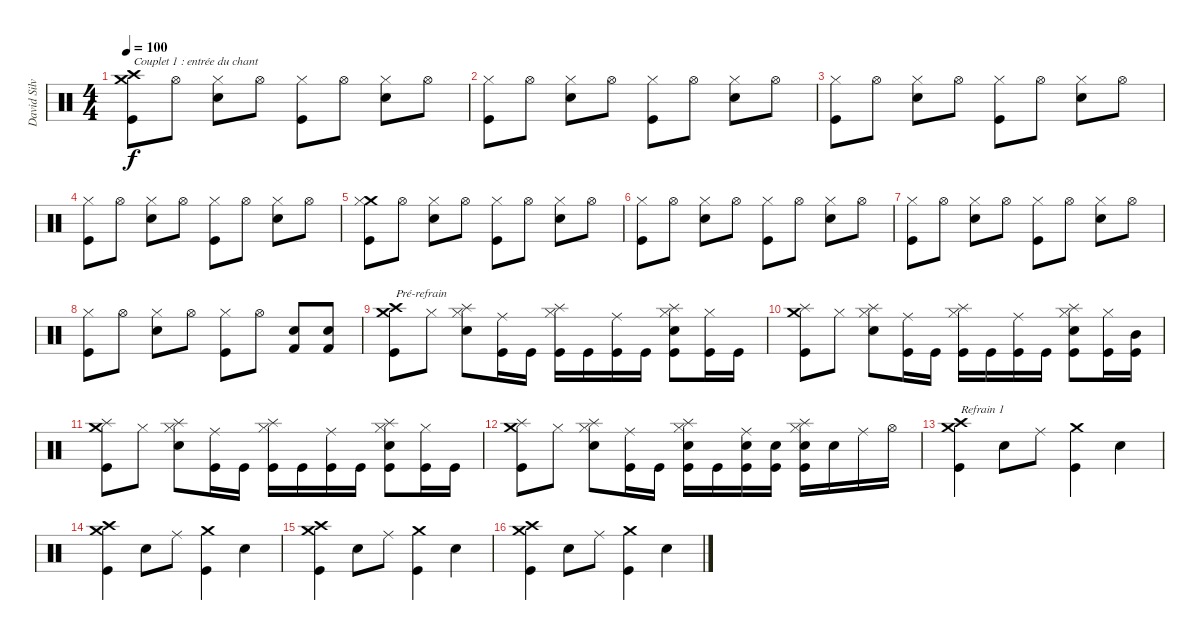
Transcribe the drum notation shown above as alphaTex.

\track ("David Silviera" "David Silv") {instrument percussion}
\staff {score}
\articulation defaults
\ts (4 4)
\tempo 100
\clef neutral
\ks c
("Crash medium (hit)" "Crash high (hit)" "Kick (hit)").8{txt "Couplet 1 : entrée du chant" dy f} "Hi-Hat (open)".8 ("Snare (hit) 2" "Hi-Hat (closed)").8 "Hi-Hat (open)".8 ("Hi-Hat (closed)" "Kick (hit)").8 "Hi-Hat (open)".8 ("Snare (hit) 2" "Hi-Hat (closed)").8 "Hi-Hat (open)".8 |
("Hi-Hat (closed)" "Kick (hit)").8 "Hi-Hat (open)".8 ("Snare (hit) 2" "Hi-Hat (closed)").8 "Hi-Hat (open)".8 ("Hi-Hat (closed)" "Kick (hit)").8 "Hi-Hat (open)".8 ("Snare (hit) 2" "Hi-Hat (closed)").8 "Hi-Hat (open)".8 |
("Hi-Hat (closed)" "Kick (hit)").8 "Hi-Hat (open)".8 ("Snare (hit) 2" "Hi-Hat (closed)").8 "Hi-Hat (open)".8 ("Hi-Hat (closed)" "Kick (hit)").8 "Hi-Hat (open)".8 ("Snare (hit) 2" "Hi-Hat (closed)").8 "Hi-Hat (open)".8 |
("Hi-Hat (closed)" "Kick (hit)").8 "Hi-Hat (open)".8 ("Snare (hit) 2" "Hi-Hat (closed)").8 "Hi-Hat (open)".8 ("Hi-Hat (closed)" "Kick (hit)").8 "Hi-Hat (open)".8 ("Snare (hit) 2" "Hi-Hat (closed)").8 "Hi-Hat (open)".8 |
("Crash medium (hit)" "Hi-Hat (closed)" "Kick (hit)").8 "Hi-Hat (open)".8 ("Snare (hit) 2" "Hi-Hat (closed)").8 "Hi-Hat (open)".8 ("Hi-Hat (closed)" "Kick (hit)").8 "Hi-Hat (open)".8 ("Snare (hit) 2" "Hi-Hat (closed)").8 "Hi-Hat (open)".8 |
("Hi-Hat (closed)" "Kick (hit)").8 "Hi-Hat (open)".8 ("Snare (hit) 2" "Hi-Hat (closed)").8 "Hi-Hat (open)".8 ("Hi-Hat (closed)" "Kick (hit)").8 "Hi-Hat (open)".8 ("Snare (hit) 2" "Hi-Hat (closed)").8 "Hi-Hat (open)".8 |
("Hi-Hat (closed)" "Kick (hit)").8 "Hi-Hat (open)".8 ("Snare (hit) 2" "Hi-Hat (closed)").8 "Hi-Hat (open)".8 ("Hi-Hat (closed)" "Kick (hit)").8 "Hi-Hat (open)".8 ("Snare (hit) 2" "Hi-Hat (closed)").8 "Hi-Hat (open)".8 |
("Hi-Hat (closed)" "Kick (hit)").8 "Hi-Hat (open)".8 ("Snare (hit) 2" "Hi-Hat (closed)").8 "Hi-Hat (open)".8 ("Hi-Hat (closed)" "Kick (hit)").8 "Hi-Hat (open)".8 ("Kick (hit) 2" "Snare (hit) 2").8 ("Kick (hit) 2" "Snare (hit) 2").8 |
("Crash medium (hit)" "Crash high (hit)" "Kick (hit)").8{txt "Pré-refrain"} "Hi-Hat (closed)".8 ("Splash (hit)" "Snare (hit) 2" "Hi-Hat (closed)").8 ("Ride (middle)" "Kick (hit)").16 "Kick (hit)".16 ("Splash (hit)" "Hi-Hat (closed)" "Kick (hit)").16 "Kick (hit)".16 ("Ride (middle)" "Kick (hit)").16 "Kick (hit)".16 ("Splash (hit)" "Snare (hit) 2" "Hi-Hat (closed)" "Kick (hit)").8 ("Hi-Hat (closed)" "Kick (hit)").16 "Kick (hit)".16 |
("Crash medium (hit)" "Splash (hit)" "Kick (hit)").8 "Hi-Hat (closed)".8 ("Splash (hit)" "Snare (hit) 2" "Hi-Hat (closed)").8 ("Ride (middle)" "Kick (hit)").16 "Kick (hit)".16 ("Splash (hit)" "Hi-Hat (closed)" "Kick (hit)").16 "Kick (hit)".16 ("Ride (middle)" "Kick (hit)").16 "Kick (hit)".16 ("Splash (hit)" "Snare (hit) 2" "Hi-Hat (closed)" "Kick (hit)").8 ("Hi-Hat (closed)" "Kick (hit)").16 ("Mid Tom (hit)" "Kick (hit)").16 |
("Crash medium (hit)" "Splash (hit)" "Kick (hit)").8 "Hi-Hat (closed)".8 ("Splash (hit)" "Snare (hit) 2" "Hi-Hat (closed)").8 ("Ride (middle)" "Kick (hit)").16 "Kick (hit)".16 ("Splash (hit)" "Hi-Hat (closed)" "Kick (hit)").16 "Kick (hit)".16 ("Ride (middle)" "Kick (hit)").16 "Kick (hit)".16 ("Splash (hit)" "Snare (hit) 2" "Hi-Hat (closed)" "Kick (hit)").8 ("Hi-Hat (closed)" "Kick (hit)").16 "Kick (hit)".16 |
("Crash medium (hit)" "Splash (hit)" "Kick (hit)").8 "Hi-Hat (closed)".8 ("Splash (hit)" "Snare (hit) 2" "Hi-Hat (closed)").8 ("Ride (middle)" "Kick (hit)").16 "Kick (hit)".16 ("Splash (hit)" "Snare (hit) 2" "Hi-Hat (closed)" "Kick (hit)").16 "Kick (hit)".16 ("Snare (hit) 2" "Ride (middle)" "Kick (hit)").16 ("Snare (hit) 2" "Kick (hit)").16 ("Splash (hit)" "Snare (hit) 2" "Hi-Hat (closed)" "Kick (hit)").16 "Snare (hit) 2".16 "Ride (middle)".16 "Hi-Hat (open)".16 |
("Crash medium (hit)" "Crash high (hit)" "Kick (hit)").4{txt "Refrain 1"} "Snare (hit) 2".8 "Ride (middle)".8 ("Crash medium (hit)" "Kick (hit)").4 "Electric Snare (hit)".4 |
("Crash medium (hit)" "Crash high (hit)" "Kick (hit)").4 "Snare (hit) 2".8 "Ride (middle)".8 ("Crash medium (hit)" "Kick (hit)").4 "Electric Snare (hit)".4 |
("Crash medium (hit)" "Crash high (hit)" "Kick (hit)").4 "Snare (hit) 2".8 "Ride (middle)".8 ("Crash medium (hit)" "Kick (hit)").4 "Electric Snare (hit)".4 |
("Crash medium (hit)" "Crash high (hit)" "Kick (hit)").4 "Electric Snare (hit)".8 "Ride (middle)".8 ("Crash medium (hit)" "Kick (hit)").4 "Electric Snare (hit)".4
